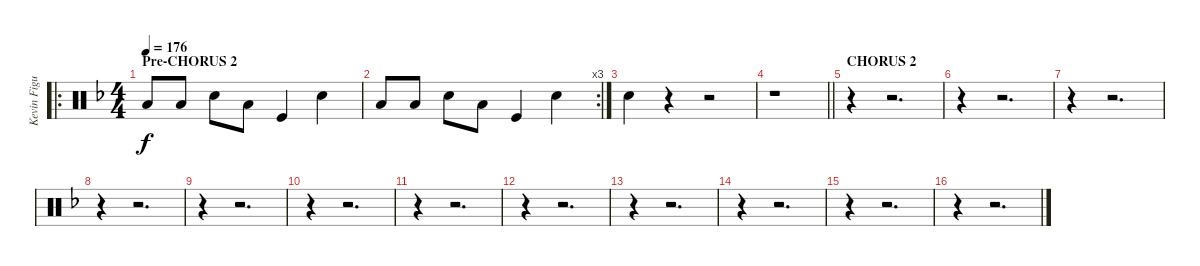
\track ("Kevin Figueiredo - Drums" "Kevin Figu") {instrument percussion}
\staff {score}
\articulation defaults
\ro
\ts (4 4)
\section ("" "Pre-CHORUS 2")
\tempo 176
\clef neutral
\ks f "Low Tom (hit)".8{dy f} "Low Floor Tom (hit)".8 "Snare (hit) 2".8 "Low Floor Tom (hit)".8 "Kick (hit)".4 "Snare (hit) 2".4
|
\rc 3 "Low Tom (hit)".8 "Low Floor Tom (hit)".8 "Snare (hit) 2".8 "Low Floor Tom (hit)".8 "Kick (hit)".4 "Snare (hit) 2".4
|
"Snare (hit) 2".4 r.4 r.2 |
\barLineRight lightlight
r.1 |
\section ("" "CHORUS 2")
r.4 r.2{d} |
r.4 r.2{d} |
r.4 r.2{d} |
r.4 r.2{d} |
r.4 r.2{d} |
r.4 r.2{d} |
r.4 r.2{d} |
r.4 r.2{d} |
r.4 r.2{d} |
r.4 r.2{d} |
r.4 r.2{d} |
r.4 r.2{d}
